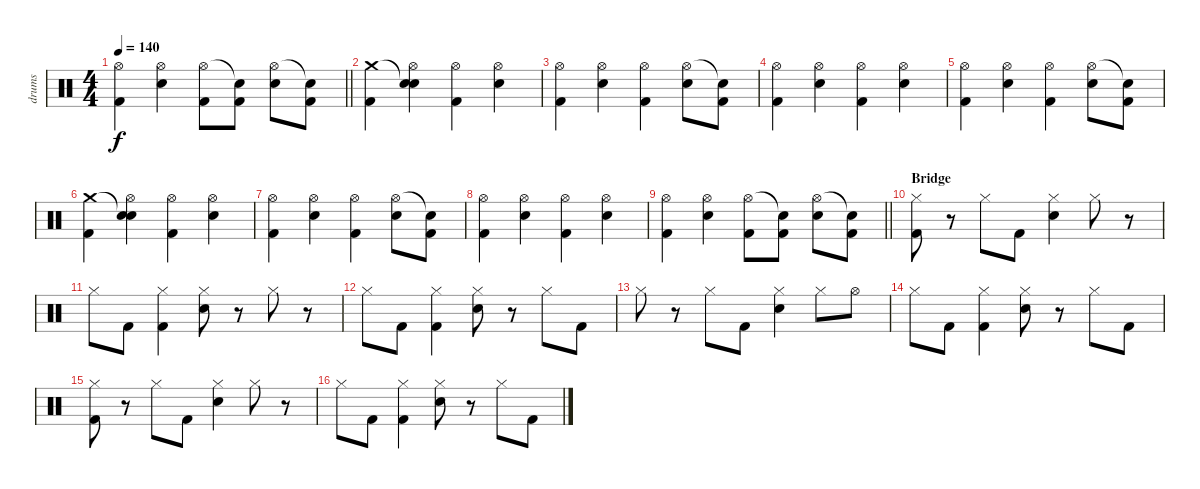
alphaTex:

\track ("drums" "drums") {instrument percussion}
\staff {score}
\articulation defaults
\ts (4 4)
\tempo 140
\clef neutral
\barLineRight lightlight
\ks c
("Hi-Hat (open)" "Kick (hit) 2").4{dy f} ("Hi-Hat (open)" "Electric Snare (hit)").4 ("Hi-Hat (open)" "Kick (hit) 2").8 ("Snare (hit)"{t} "Kick (hit) 2").8 ("Hi-Hat (open)" "Electric Snare (hit)").8 ("Snare (hit)"{t} "Kick (hit) 2").8 |
("Crash medium (hit)" "Kick (hit) 2").4 ("Snare (hit)"{t} "Hi-Hat (open)" "Electric Snare (hit)").4 ("Hi-Hat (open)" "Kick (hit) 2").4 ("Hi-Hat (open)" "Electric Snare (hit)").4 |
("Hi-Hat (open)" "Kick (hit) 2").4 ("Hi-Hat (open)" "Electric Snare (hit)").4 ("Hi-Hat (open)" "Kick (hit) 2").4 ("Hi-Hat (open)" "Electric Snare (hit)").8 ("Snare (hit)"{t} "Kick (hit) 2").8 |
("Hi-Hat (open)" "Kick (hit) 2").4 ("Hi-Hat (open)" "Electric Snare (hit)").4 ("Hi-Hat (open)" "Kick (hit) 2").4 ("Hi-Hat (open)" "Electric Snare (hit)").4 |
("Hi-Hat (open)" "Kick (hit) 2").4 ("Hi-Hat (open)" "Electric Snare (hit)").4 ("Hi-Hat (open)" "Kick (hit) 2").4 ("Hi-Hat (open)" "Electric Snare (hit)").8 ("Snare (hit)"{t} "Kick (hit) 2").8 |
("Crash medium (hit)" "Kick (hit) 2").4 ("Snare (hit)"{t} "Hi-Hat (open)" "Electric Snare (hit)").4 ("Hi-Hat (open)" "Kick (hit) 2").4 ("Hi-Hat (open)" "Electric Snare (hit)").4 |
("Hi-Hat (open)" "Kick (hit) 2").4 ("Hi-Hat (open)" "Electric Snare (hit)").4 ("Hi-Hat (open)" "Kick (hit) 2").4 ("Hi-Hat (open)" "Electric Snare (hit)").8 ("Snare (hit)"{t} "Kick (hit) 2").8 |
("Hi-Hat (open)" "Kick (hit) 2").4 ("Hi-Hat (open)" "Electric Snare (hit)").4 ("Hi-Hat (open)" "Kick (hit) 2").4 ("Hi-Hat (open)" "Electric Snare (hit)").4 |
\barLineRight lightlight
("Hi-Hat (open)" "Kick (hit) 2").4 ("Hi-Hat (open)" "Electric Snare (hit)").4 ("Hi-Hat (open)" "Kick (hit) 2").8 ("Snare (hit)"{t} "Kick (hit) 2").8 ("Hi-Hat (open)" "Electric Snare (hit)").8 ("Snare (hit)"{t} "Kick (hit) 2").8 |
\section ("" "Bridge")
("Hi-Hat (closed)" "Kick (hit) 2").8 r.8 "Hi-Hat (closed)".8 "Kick (hit) 2".8 ("Hi-Hat (closed)" "Snare (hit) 2").4 "Hi-Hat (closed)".8 r.8 |
"Hi-Hat (closed)".8 "Kick (hit) 2".8 ("Hi-Hat (closed)" "Kick (hit) 2").4 ("Hi-Hat (closed)" "Snare (hit) 2").8 r.8 "Hi-Hat (closed)".8 r.8 |
"Hi-Hat (closed)".8 "Kick (hit) 2".8 ("Hi-Hat (closed)" "Kick (hit) 2").4 ("Hi-Hat (closed)" "Snare (hit) 2").8 r.8 "Hi-Hat (closed)".8 "Kick (hit) 2".8 |
"Hi-Hat (closed)".8 r.8 "Hi-Hat (closed)".8 "Kick (hit) 2".8 ("Hi-Hat (closed)" "Snare (hit) 2").4 "Hi-Hat (closed)".8 "Hi-Hat (open)".8 |
"Hi-Hat (closed)".8 "Kick (hit) 2".8 ("Hi-Hat (closed)" "Kick (hit) 2").4 ("Hi-Hat (closed)" "Snare (hit) 2").8 r.8 "Hi-Hat (closed)".8 "Kick (hit) 2".8 |
("Hi-Hat (closed)" "Kick (hit) 2").8 r.8 "Hi-Hat (closed)".8 "Kick (hit) 2".8 ("Hi-Hat (closed)" "Snare (hit) 2").4 "Hi-Hat (closed)".8 r.8 |
"Hi-Hat (closed)".8 "Kick (hit) 2".8 ("Hi-Hat (closed)" "Kick (hit) 2").4 ("Hi-Hat (closed)" "Snare (hit) 2").8 r.8 "Hi-Hat (closed)".8 "Kick (hit) 2".8
